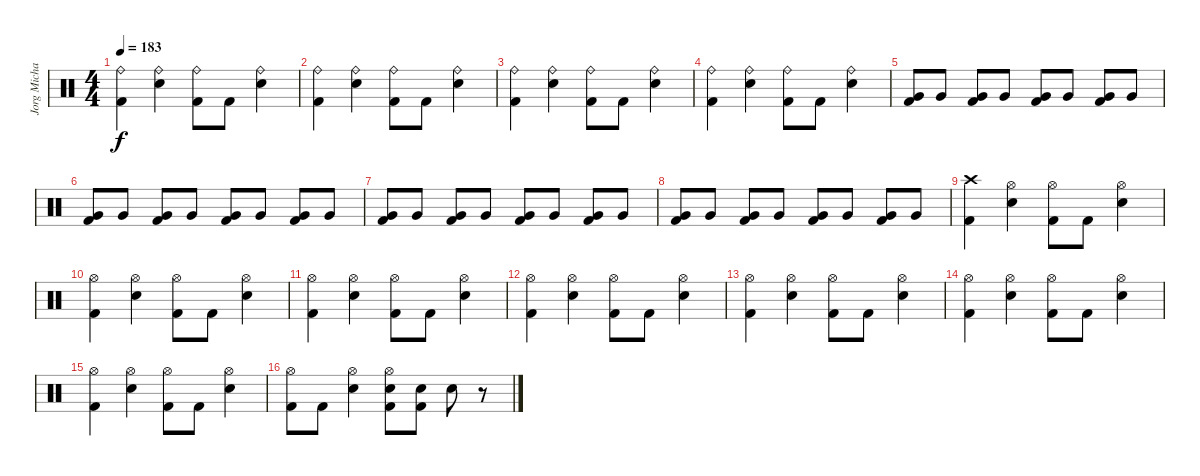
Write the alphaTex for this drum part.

\track ("Jorg Michael" "Jorg Micha") {instrument percussion}
\staff {score}
\articulation defaults
\ts (4 4)
\tempo 183
\clef neutral
\ks c
("Kick (hit) 2" "Ride (bell)").4{dy f} ("Snare (hit) 2" "Ride (bell)").4 ("Kick (hit) 2" "Ride (bell)").8 "Kick (hit) 2".8 ("Snare (hit) 2" "Ride (bell)").4 |
("Kick (hit) 2" "Ride (bell)").4 ("Snare (hit) 2" "Ride (bell)").4 ("Kick (hit) 2" "Ride (bell)").8 "Kick (hit) 2".8 ("Snare (hit) 2" "Ride (bell)").4 |
("Kick (hit) 2" "Ride (bell)").4 ("Snare (hit) 2" "Ride (bell)").4 ("Kick (hit) 2" "Ride (bell)").8 "Kick (hit) 2".8 ("Snare (hit) 2" "Ride (bell)").4 |
("Kick (hit) 2" "Ride (bell)").4 ("Snare (hit) 2" "Ride (bell)").4 ("Kick (hit) 2" "Ride (bell)").8 "Kick (hit) 2".8 ("Snare (hit) 2" "Ride (bell)").4 |
("Very Low Tom (hit)" "Kick (hit) 2").8 "Very Low Tom (hit)".8 ("Very Low Tom (hit)" "Kick (hit) 2").8 "Very Low Tom (hit)".8 ("Very Low Tom (hit)" "Kick (hit) 2").8 "Very Low Tom (hit)".8 ("Very Low Tom (hit)" "Kick (hit) 2").8 "Very Low Tom (hit)".8 |
("Very Low Tom (hit)" "Kick (hit) 2").8 "Very Low Tom (hit)".8 ("Very Low Tom (hit)" "Kick (hit) 2").8 "Very Low Tom (hit)".8 ("Very Low Tom (hit)" "Kick (hit) 2").8 "Very Low Tom (hit)".8 ("Very Low Tom (hit)" "Kick (hit) 2").8 "Very Low Tom (hit)".8 |
("Very Low Tom (hit)" "Kick (hit) 2").8 "Very Low Tom (hit)".8 ("Very Low Tom (hit)" "Kick (hit) 2").8 "Very Low Tom (hit)".8 ("Very Low Tom (hit)" "Kick (hit) 2").8 "Very Low Tom (hit)".8 ("Very Low Tom (hit)" "Kick (hit) 2").8 "Very Low Tom (hit)".8 |
("Very Low Tom (hit)" "Kick (hit) 2").8 "Very Low Tom (hit)".8 ("Very Low Tom (hit)" "Kick (hit) 2").8 "Very Low Tom (hit)".8 ("Very Low Tom (hit)" "Kick (hit) 2").8 "Very Low Tom (hit)".8 ("Very Low Tom (hit)" "Kick (hit) 2").8 "Very Low Tom (hit)".8 |
("Kick (hit) 2" "Crash high (hit)").4 ("Snare (hit) 2" "Hi-Hat (open)").4 ("Kick (hit) 2" "Hi-Hat (open)").8 "Kick (hit) 2".8 ("Snare (hit) 2" "Hi-Hat (open)").4 |
("Kick (hit) 2" "Hi-Hat (open)").4 ("Snare (hit) 2" "Hi-Hat (open)").4 ("Kick (hit) 2" "Hi-Hat (open)").8 "Kick (hit) 2".8 ("Snare (hit) 2" "Hi-Hat (open)").4 |
("Kick (hit) 2" "Hi-Hat (open)").4 ("Snare (hit) 2" "Hi-Hat (open)").4 ("Kick (hit) 2" "Hi-Hat (open)").8 "Kick (hit) 2".8 ("Snare (hit) 2" "Hi-Hat (open)").4 |
("Kick (hit) 2" "Hi-Hat (open)").4 ("Snare (hit) 2" "Hi-Hat (open)").4 ("Kick (hit) 2" "Hi-Hat (open)").8 "Kick (hit) 2".8 ("Snare (hit) 2" "Hi-Hat (open)").4 |
("Kick (hit) 2" "Hi-Hat (open)").4 ("Snare (hit) 2" "Hi-Hat (open)").4 ("Kick (hit) 2" "Hi-Hat (open)").8 "Kick (hit) 2".8 ("Snare (hit) 2" "Hi-Hat (open)").4 |
("Kick (hit) 2" "Hi-Hat (open)").4 ("Snare (hit) 2" "Hi-Hat (open)").4 ("Kick (hit) 2" "Hi-Hat (open)").8 "Kick (hit) 2".8 ("Snare (hit) 2" "Hi-Hat (open)").4 |
("Kick (hit) 2" "Hi-Hat (open)").4 ("Snare (hit) 2" "Hi-Hat (open)").4 ("Kick (hit) 2" "Hi-Hat (open)").8 "Kick (hit) 2".8 ("Snare (hit) 2" "Hi-Hat (open)").4 |
("Kick (hit) 2" "Hi-Hat (open)").8 "Kick (hit) 2".8 ("Snare (hit) 2" "Hi-Hat (open)").4 ("Snare (hit) 2" "Kick (hit) 2" "Hi-Hat (open)").8 ("Snare (hit) 2" "Kick (hit) 2").8 "Snare (hit) 2".8 r.8
